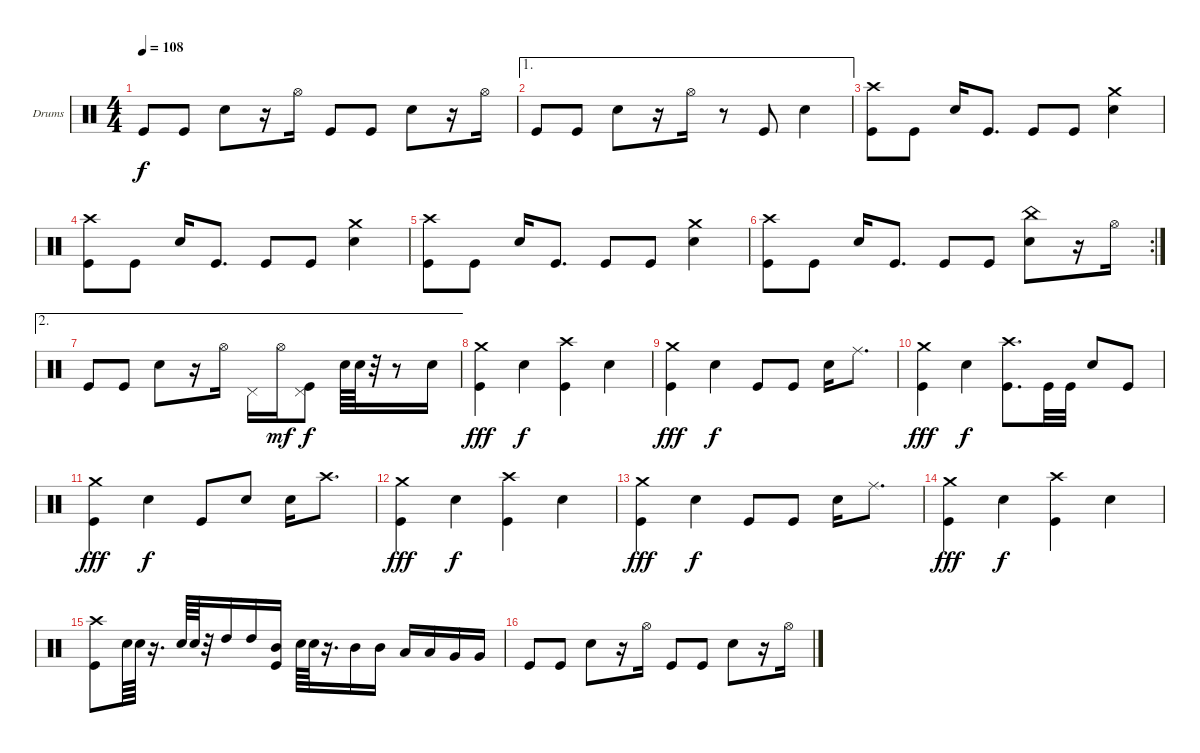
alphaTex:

\bracketExtendMode groupsimilarinstruments
\firstSystemTrackNameOrientation horizontal
\otherSystemsTrackNameOrientation horizontal
\track ("Drumkit" "Drums") {instrument percussion}
\staff {score}
\articulation defaults
\ts (4 4)
\tempo 108
\clef neutral
\ks c "Kick (hit)".8{dy f} "Kick (hit)".8 "Snare (hit) 2".8
r.16 "Hi-Hat (open)".16 "Kick (hit)".8 "Kick (hit)".8 "Snare (hit) 2".8 r.16 "Hi-Hat (open)".16 |
\ae 1 "Kick (hit)".8 "Kick (hit)".8 "Snare (hit) 2".8
r.16 "Hi-Hat (open)".16 r.8 "Kick (hit)".8 "Snare (hit) 2".4 |
("Crash high (hit)" "Kick (hit)").8 "Kick (hit)".8 "Snare (hit) 2".16 "Kick (hit)".8{d} "Kick (hit)".8 "Kick (hit)".8 ("Crash medium (hit)" "Snare (hit) 2").4 |
("Crash high (hit)" "Kick (hit)").8 "Kick (hit)".8 "Snare (hit) 2".16 "Kick (hit)".8{d} "Kick (hit)".8 "Kick (hit)".8 ("Crash medium (hit)" "Snare (hit) 2").4 |
("Crash high (hit)" "Kick (hit)").8 "Kick (hit)".8 "Snare (hit) 2".16 "Kick (hit)".8{d} "Kick (hit)".8 "Kick (hit)".8 ("Crash medium (hit)" "Snare (hit) 2").4 |
\rc 2
("Crash high (hit)" "Kick (hit)").8 "Kick (hit)".8 "Snare (hit) 2".16 "Kick (hit)".8{d} "Kick (hit)".8 "Kick (hit)".8 ("China (hit)" "Snare (hit) 2").8 r.16 "Hi-Hat (open)".16 |
\ae 2 "Kick (hit)".8 "Kick (hit)".8 "Snare (hit) 2".8
r.16 "Hi-Hat (open)".16 "Pedal Hi-Hat (hit)".16 "Hi-Hat (open)".16{dy mf} ("Pedal Hi-Hat (hit)" "Kick (hit)").8{dy f} "Snare (hit) 2".64 "Snare (hit) 2".64 r.32 r.8 "Snare (hit) 2".16 |
("Crash medium (hit)" "Kick (hit)").4{dy fff} "Snare (hit) 2".4{dy f} ("Crash high (hit)" "Kick (hit)").4 "Snare (hit) 2".4 |
("Crash medium (hit)" "Kick (hit)").4{dy fff} "Snare (hit) 2".4{dy f} "Kick (hit)".8 "Kick (hit)".8 "Snare (hit) 2".16 "Ride (middle)".8{d} |
("Crash medium (hit)" "Kick (hit)").4{dy fff} "Snare (hit) 2".4{dy f} ("Crash high (hit)" "Kick (hit)").8{d} "Kick (hit)".32 "Kick (hit)".32 "Snare (hit) 2".8 "Kick (hit)".8 |
("Crash medium (hit)" "Kick (hit)").4{dy fff} "Snare (hit) 2".4{dy f} "Kick (hit)".8 "Snare (hit) 2".8 "Snare (hit) 2".16 "Crash high (hit)".8{d} |
("Crash medium (hit)" "Kick (hit)").4{dy fff} "Snare (hit) 2".4{dy f} ("Crash high (hit)" "Kick (hit)").4 "Snare (hit) 2".4 |
("Crash medium (hit)" "Kick (hit)").4{dy fff} "Snare (hit) 2".4{dy f} "Kick (hit)".8 "Kick (hit)".8 "Snare (hit) 2".16 "Ride (middle)".8{d} |
("Crash medium (hit)" "Kick (hit)").4{dy fff} "Snare (hit) 2".4{dy f} ("Crash high (hit)" "Kick (hit)").4 "Snare (hit) 2".4 |
("Crash high (hit)" "Kick (hit)").8 "Snare (hit) 2".64 "Snare (hit) 2".64 r.16{d} "Snare (hit) 2".64 "Snare (hit) 2".64 r.32 "High Tom (hit)".16 "High Tom (hit)".16 ("Mid Tom (hit)" "Kick (hit)").16 "Snare (hit) 2".64 "Snare (hit) 2".64 r.16{d} "Mid Tom (hit)".16 "Mid Tom (hit)".16 "Low Tom (hit)".16 "Low Tom (hit)".16 "Very Low Tom (hit)".16 "Very Low Tom (hit)".16 |
"Kick (hit)".8 "Kick (hit)".8 "Snare (hit) 2".8 r.16 "Hi-Hat (open)".16 "Kick (hit)".8 "Kick (hit)".8 "Snare (hit) 2".8 r.16 "Hi-Hat (open)".16
